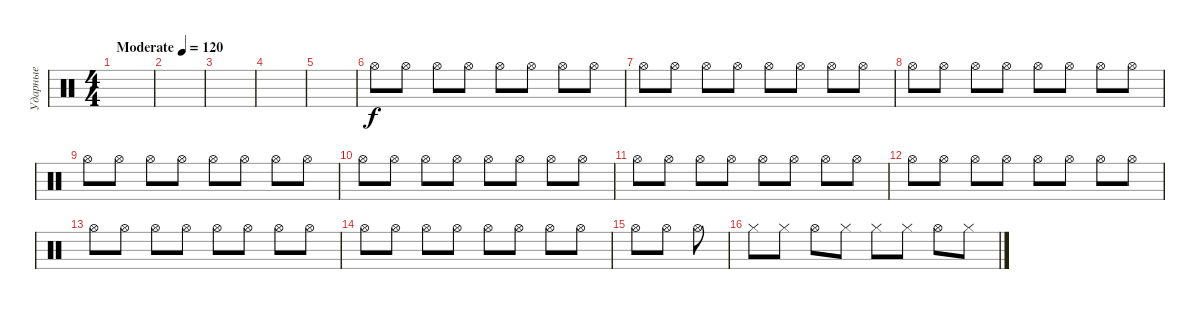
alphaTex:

\track ("Ударные" "Ударные") {instrument percussion}
\staff {score}
\articulation defaults
\ts (4 4)
\tempo (120 "Moderate")
\clef neutral
\ks c
|
|
|
|
|
"Hi-Hat (open)".8 "Hi-Hat (open)".8 "Hi-Hat (open)".8 "Hi-Hat (open)".8 "Hi-Hat (open)".8 "Hi-Hat (open)".8 "Hi-Hat (open)".8 "Hi-Hat (open)".8 |
"Hi-Hat (open)".8 "Hi-Hat (open)".8 "Hi-Hat (open)".8 "Hi-Hat (open)".8 "Hi-Hat (open)".8 "Hi-Hat (open)".8 "Hi-Hat (open)".8 "Hi-Hat (open)".8 |
"Hi-Hat (open)".8 "Hi-Hat (open)".8 "Hi-Hat (open)".8 "Hi-Hat (open)".8 "Hi-Hat (open)".8 "Hi-Hat (open)".8 "Hi-Hat (open)".8 "Hi-Hat (open)".8 |
"Hi-Hat (open)".8 "Hi-Hat (open)".8 "Hi-Hat (open)".8 "Hi-Hat (open)".8 "Hi-Hat (open)".8 "Hi-Hat (open)".8 "Hi-Hat (open)".8 "Hi-Hat (open)".8 |
"Hi-Hat (open)".8 "Hi-Hat (open)".8 "Hi-Hat (open)".8 "Hi-Hat (open)".8 "Hi-Hat (open)".8 "Hi-Hat (open)".8 "Hi-Hat (open)".8 "Hi-Hat (open)".8 |
"Hi-Hat (open)".8 "Hi-Hat (open)".8 "Hi-Hat (open)".8 "Hi-Hat (open)".8 "Hi-Hat (open)".8 "Hi-Hat (open)".8 "Hi-Hat (open)".8 "Hi-Hat (open)".8 |
"Hi-Hat (open)".8 "Hi-Hat (open)".8 "Hi-Hat (open)".8 "Hi-Hat (open)".8 "Hi-Hat (open)".8 "Hi-Hat (open)".8 "Hi-Hat (open)".8 "Hi-Hat (open)".8 |
"Hi-Hat (open)".8 "Hi-Hat (open)".8 "Hi-Hat (open)".8 "Hi-Hat (open)".8 "Hi-Hat (open)".8 "Hi-Hat (open)".8 "Hi-Hat (open)".8 "Hi-Hat (open)".8 |
"Hi-Hat (open)".8 "Hi-Hat (open)".8 "Hi-Hat (open)".8 "Hi-Hat (open)".8 "Hi-Hat (open)".8 "Hi-Hat (open)".8 "Hi-Hat (open)".8 "Hi-Hat (open)".8 |
"Hi-Hat (open)".8 "Hi-Hat (open)".8 "Hi-Hat (open)".8 |
"Hi-Hat (closed)".8 "Hi-Hat (closed)".8 "Hi-Hat (open)".8 "Hi-Hat (closed)".8 "Hi-Hat (closed)".8 "Hi-Hat (closed)".8 "Hi-Hat (open)".8 "Hi-Hat (closed)".8
